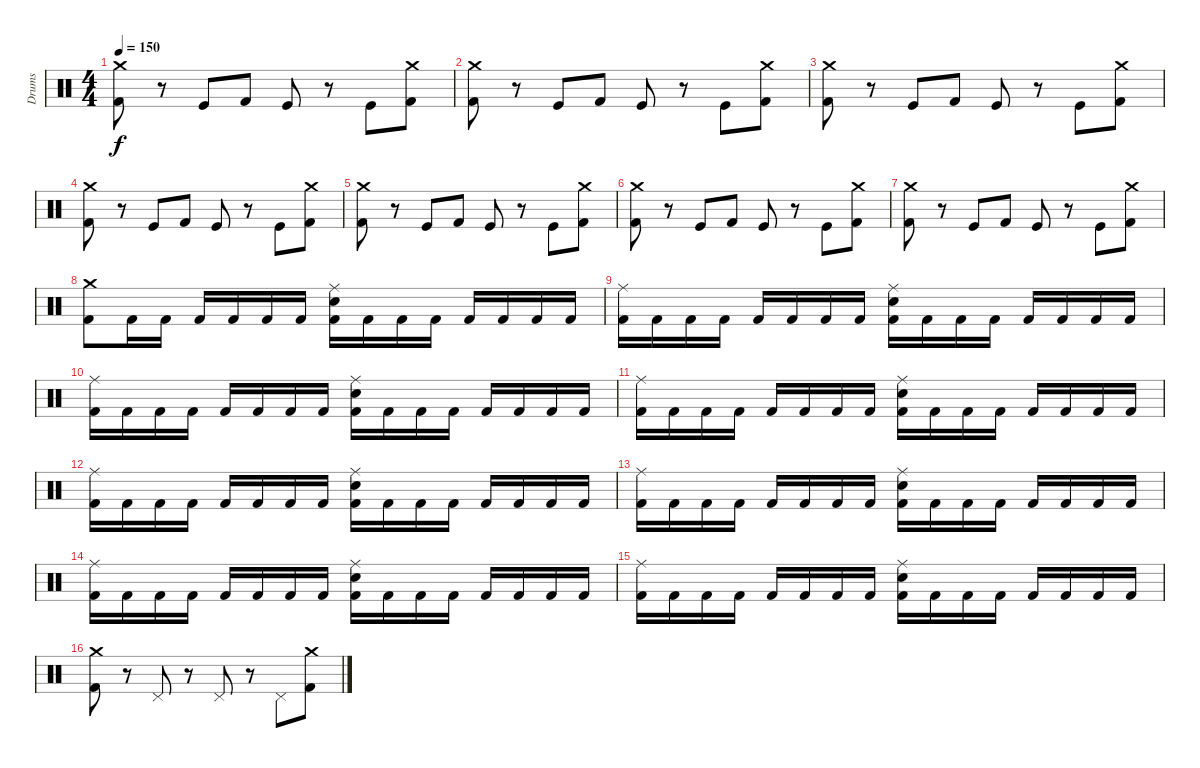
\track ("Drums" "Drums") {instrument percussion}
\staff {score}
\articulation defaults
\ts (4 4)
\tempo 150
\clef neutral
\ks c
("Crash medium (hit)" "Kick (hit) 2").8{dy f} r.8 "Kick (hit)".8 "Kick (hit) 2".8 "Kick (hit)".8 r.8 "Kick (hit)".8 ("Crash medium (hit)" "Kick (hit) 2").8 |
("Crash medium (hit)" "Kick (hit) 2").8 r.8 "Kick (hit)".8 "Kick (hit) 2".8 "Kick (hit)".8 r.8 "Kick (hit)".8 ("Crash medium (hit)" "Kick (hit) 2").8 |
("Crash medium (hit)" "Kick (hit) 2").8 r.8 "Kick (hit)".8 "Kick (hit) 2".8 "Kick (hit)".8 r.8 "Kick (hit)".8 ("Crash medium (hit)" "Kick (hit) 2").8 |
("Crash medium (hit)" "Kick (hit) 2").8 r.8 "Kick (hit)".8 "Kick (hit) 2".8 "Kick (hit)".8 r.8 "Kick (hit)".8 ("Crash medium (hit)" "Kick (hit) 2").8 |
("Crash medium (hit)" "Kick (hit) 2").8 r.8 "Kick (hit)".8 "Kick (hit) 2".8 "Kick (hit)".8 r.8 "Kick (hit)".8 ("Crash medium (hit)" "Kick (hit) 2").8 |
("Crash medium (hit)" "Kick (hit) 2").8 r.8 "Kick (hit)".8 "Kick (hit) 2".8 "Kick (hit)".8 r.8 "Kick (hit)".8 ("Crash medium (hit)" "Kick (hit) 2").8 |
("Crash medium (hit)" "Kick (hit) 2").8 r.8 "Kick (hit)".8 "Kick (hit) 2".8 "Kick (hit)".8 r.8 "Kick (hit)".8 ("Crash medium (hit)" "Kick (hit) 2").8 |
("Crash medium (hit)" "Kick (hit) 2").8 "Kick (hit) 2".16 "Kick (hit) 2".16 "Kick (hit) 2".16 "Kick (hit) 2".16 "Kick (hit) 2".16 "Kick (hit) 2".16 ("Kick (hit) 2" "Snare (hit) 2" "Ride (middle)").16 "Kick (hit) 2".16 "Kick (hit) 2".16 "Kick (hit) 2".16 "Kick (hit) 2".16 "Kick (hit) 2".16 "Kick (hit) 2".16 "Kick (hit) 2".16 |
("Kick (hit) 2" "Ride (middle)").16 "Kick (hit) 2".16 "Kick (hit) 2".16 "Kick (hit) 2".16 "Kick (hit) 2".16 "Kick (hit) 2".16 "Kick (hit) 2".16 "Kick (hit) 2".16 ("Kick (hit) 2" "Snare (hit) 2" "Ride (middle)").16 "Kick (hit) 2".16 "Kick (hit) 2".16 "Kick (hit) 2".16 "Kick (hit) 2".16 "Kick (hit) 2".16 "Kick (hit) 2".16 "Kick (hit) 2".16 |
("Kick (hit) 2" "Ride (middle)").16 "Kick (hit) 2".16 "Kick (hit) 2".16 "Kick (hit) 2".16 "Kick (hit) 2".16 "Kick (hit) 2".16 "Kick (hit) 2".16 "Kick (hit) 2".16 ("Kick (hit) 2" "Snare (hit) 2" "Ride (middle)").16 "Kick (hit) 2".16 "Kick (hit) 2".16 "Kick (hit) 2".16 "Kick (hit) 2".16 "Kick (hit) 2".16 "Kick (hit) 2".16 "Kick (hit) 2".16 |
("Kick (hit) 2" "Ride (middle)").16 "Kick (hit) 2".16 "Kick (hit) 2".16 "Kick (hit) 2".16 "Kick (hit) 2".16 "Kick (hit) 2".16 "Kick (hit) 2".16 "Kick (hit) 2".16 ("Kick (hit) 2" "Snare (hit) 2" "Ride (middle)").16 "Kick (hit) 2".16 "Kick (hit) 2".16 "Kick (hit) 2".16 "Kick (hit) 2".16 "Kick (hit) 2".16 "Kick (hit) 2".16 "Kick (hit) 2".16 |
("Kick (hit) 2" "Ride (middle)").16 "Kick (hit) 2".16 "Kick (hit) 2".16 "Kick (hit) 2".16 "Kick (hit) 2".16 "Kick (hit) 2".16 "Kick (hit) 2".16 "Kick (hit) 2".16 ("Kick (hit) 2" "Snare (hit) 2" "Ride (middle)").16 "Kick (hit) 2".16 "Kick (hit) 2".16 "Kick (hit) 2".16 "Kick (hit) 2".16 "Kick (hit) 2".16 "Kick (hit) 2".16 "Kick (hit) 2".16 |
("Kick (hit) 2" "Ride (middle)").16 "Kick (hit) 2".16 "Kick (hit) 2".16 "Kick (hit) 2".16 "Kick (hit) 2".16 "Kick (hit) 2".16 "Kick (hit) 2".16 "Kick (hit) 2".16 ("Kick (hit) 2" "Snare (hit) 2" "Ride (middle)").16 "Kick (hit) 2".16 "Kick (hit) 2".16 "Kick (hit) 2".16 "Kick (hit) 2".16 "Kick (hit) 2".16 "Kick (hit) 2".16 "Kick (hit) 2".16 |
("Kick (hit) 2" "Ride (middle)").16 "Kick (hit) 2".16 "Kick (hit) 2".16 "Kick (hit) 2".16 "Kick (hit) 2".16 "Kick (hit) 2".16 "Kick (hit) 2".16 "Kick (hit) 2".16 ("Kick (hit) 2" "Snare (hit) 2" "Ride (middle)").16 "Kick (hit) 2".16 "Kick (hit) 2".16 "Kick (hit) 2".16 "Kick (hit) 2".16 "Kick (hit) 2".16 "Kick (hit) 2".16 "Kick (hit) 2".16 |
("Kick (hit) 2" "Ride (middle)").16 "Kick (hit) 2".16 "Kick (hit) 2".16 "Kick (hit) 2".16 "Kick (hit) 2".16 "Kick (hit) 2".16 "Kick (hit) 2".16 "Kick (hit) 2".16 ("Kick (hit) 2" "Snare (hit) 2" "Ride (middle)").16 "Kick (hit) 2".16 "Kick (hit) 2".16 "Kick (hit) 2".16 "Kick (hit) 2".16 "Kick (hit) 2".16 "Kick (hit) 2".16 "Kick (hit) 2".16 |
("Crash medium (hit)" "Kick (hit) 2").8 r.8 "Pedal Hi-Hat (hit)".8 r.8 "Pedal Hi-Hat (hit)".8 r.8 "Pedal Hi-Hat (hit)".8 ("Crash medium (hit)" "Kick (hit) 2").8
